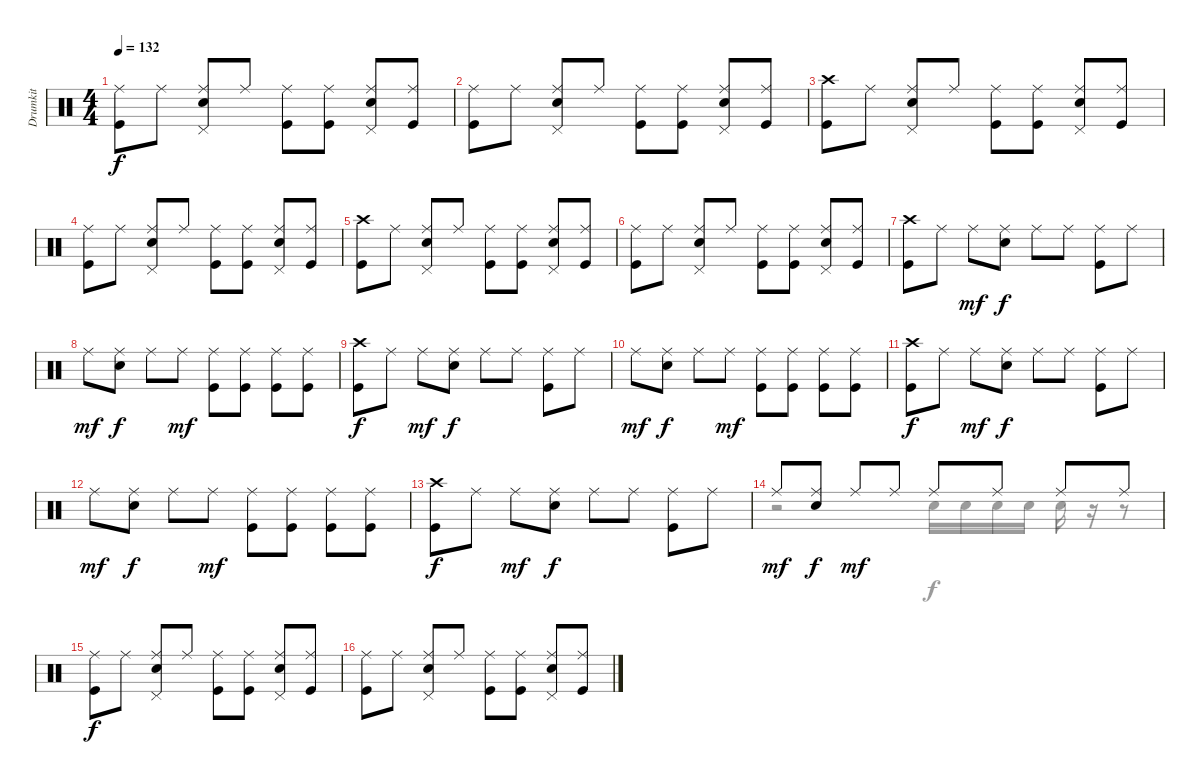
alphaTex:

\track ("Drumkit" "Drumkit") {instrument percussion}
\staff {score}
\articulation defaults
\voice
\ts (4 4)
\tempo 132
\clef neutral
\ks c
("Kick (hit)" "Ride (middle)").8{dy f} "Ride (middle)".8 ("Snare (hit) 2" "Pedal Hi-Hat (hit)" "Ride (middle)").8 "Ride (middle)".8 ("Kick (hit)" "Ride (middle)").8 ("Kick (hit)" "Ride (middle)").8 ("Snare (hit) 2" "Pedal Hi-Hat (hit)" "Ride (middle)").8 ("Kick (hit)" "Ride (middle)").8 |
("Kick (hit)" "Ride (middle)").8 "Ride (middle)".8 ("Snare (hit) 2" "Pedal Hi-Hat (hit)" "Ride (middle)").8 "Ride (middle)".8 ("Kick (hit)" "Ride (middle)").8 ("Kick (hit)" "Ride (middle)").8 ("Snare (hit) 2" "Pedal Hi-Hat (hit)" "Ride (middle)").8 ("Kick (hit)" "Ride (middle)").8 |
("Kick (hit)" "Crash high (hit)").8 "Ride (middle)".8 ("Snare (hit) 2" "Pedal Hi-Hat (hit)" "Ride (middle)").8 "Ride (middle)".8 ("Kick (hit)" "Ride (middle)").8 ("Kick (hit)" "Ride (middle)").8 ("Snare (hit) 2" "Pedal Hi-Hat (hit)" "Ride (middle)").8 ("Kick (hit)" "Ride (middle)").8 |
("Kick (hit)" "Ride (middle)").8 "Ride (middle)".8 ("Snare (hit) 2" "Pedal Hi-Hat (hit)" "Ride (middle)").8 "Ride (middle)".8 ("Kick (hit)" "Ride (middle)").8 ("Kick (hit)" "Ride (middle)").8 ("Snare (hit) 2" "Pedal Hi-Hat (hit)" "Ride (middle)").8 ("Kick (hit)" "Ride (middle)").8 |
("Kick (hit)" "Crash high (hit)").8 "Ride (middle)".8 ("Snare (hit) 2" "Pedal Hi-Hat (hit)" "Ride (middle)").8 "Ride (middle)".8 ("Kick (hit)" "Ride (middle)").8 ("Kick (hit)" "Ride (middle)").8 ("Snare (hit) 2" "Pedal Hi-Hat (hit)" "Ride (middle)").8 ("Kick (hit)" "Ride (middle)").8 |
("Kick (hit)" "Ride (middle)").8 "Ride (middle)".8 ("Snare (hit) 2" "Pedal Hi-Hat (hit)" "Ride (middle)").8 "Ride (middle)".8 ("Kick (hit)" "Ride (middle)").8 ("Kick (hit)" "Ride (middle)").8 ("Snare (hit) 2" "Pedal Hi-Hat (hit)" "Ride (middle)").8 ("Kick (hit)" "Ride (middle)").8 |
("Crash high (hit)" "Kick (hit)").8 "Ride (middle)".8 "Ride (middle)".8{dy mf} ("Ride (middle)" "Snare (hit) 2").8{dy f} "Ride (middle)".8 "Ride (middle)".8 ("Kick (hit)" "Ride (middle)").8 "Ride (middle)".8 |
"Ride (middle)".8{dy mf} ("Ride (middle)" "Snare (hit) 2").8{dy f} "Ride (middle)".8 "Ride (middle)".8{dy mf} ("Ride (middle)" "Kick (hit)").8 ("Ride (middle)" "Kick (hit)").8 ("Ride (middle)" "Kick (hit)").8 ("Ride (middle)" "Kick (hit)").8 |
("Crash high (hit)" "Kick (hit)").8{dy f} "Ride (middle)".8 "Ride (middle)".8{dy mf} ("Ride (middle)" "Snare (hit) 2").8{dy f} "Ride (middle)".8 "Ride (middle)".8 ("Kick (hit)" "Ride (middle)").8 "Ride (middle)".8 |
"Ride (middle)".8{dy mf} ("Ride (middle)" "Snare (hit) 2").8{dy f} "Ride (middle)".8 "Ride (middle)".8{dy mf} ("Ride (middle)" "Kick (hit)").8 ("Ride (middle)" "Kick (hit)").8 ("Ride (middle)" "Kick (hit)").8 ("Ride (middle)" "Kick (hit)").8 |
("Crash high (hit)" "Kick (hit)").8{dy f} "Ride (middle)".8 "Ride (middle)".8{dy mf} ("Ride (middle)" "Snare (hit) 2").8{dy f} "Ride (middle)".8 "Ride (middle)".8 ("Kick (hit)" "Ride (middle)").8 "Ride (middle)".8 |
"Ride (middle)".8{dy mf} ("Ride (middle)" "Snare (hit) 2").8{dy f} "Ride (middle)".8 "Ride (middle)".8{dy mf} ("Ride (middle)" "Kick (hit)").8 ("Ride (middle)" "Kick (hit)").8 ("Ride (middle)" "Kick (hit)").8 ("Ride (middle)" "Kick (hit)").8 |
("Crash high (hit)" "Kick (hit)").8{dy f} "Ride (middle)".8 "Ride (middle)".8{dy mf} ("Ride (middle)" "Snare (hit) 2").8{dy f} "Ride (middle)".8 "Ride (middle)".8 ("Kick (hit)" "Ride (middle)").8 "Ride (middle)".8 |
"Ride (middle)".8{dy mf} ("Ride (middle)" "Snare (hit) 2").8{dy f} "Ride (middle)".8{dy mf} "Ride (middle)".8 "Ride (middle)".8 "Ride (middle)".8 "Ride (middle)".8 "Ride (middle)".8 |
("Kick (hit)" "Ride (middle)").8{dy f} "Ride (middle)".8 ("Snare (hit) 2" "Pedal Hi-Hat (hit)" "Ride (middle)").8 "Ride (middle)".8 ("Kick (hit)" "Ride (middle)").8 ("Kick (hit)" "Ride (middle)").8 ("Snare (hit) 2" "Pedal Hi-Hat (hit)" "Ride (middle)").8 ("Kick (hit)" "Ride (middle)").8 |
("Kick (hit)" "Ride (middle)").8 "Ride (middle)".8 ("Snare (hit) 2" "Pedal Hi-Hat (hit)" "Ride (middle)").8 "Ride (middle)".8 ("Kick (hit)" "Ride (middle)").8 ("Kick (hit)" "Ride (middle)").8 ("Snare (hit) 2" "Pedal Hi-Hat (hit)" "Ride (middle)").8 ("Kick (hit)" "Ride (middle)").8
\voice
\clef neutral
\ottava regular
\simile none
\ks c
|
|
|
|
|
|
|
|
|
|
|
|
|
r.2 "Snare (hit) 2".16 "Snare (hit) 2".16 "Snare (hit) 2".16 "Snare (hit) 2".16 "Snare (hit) 2".16 r.16 r.8 |
|
